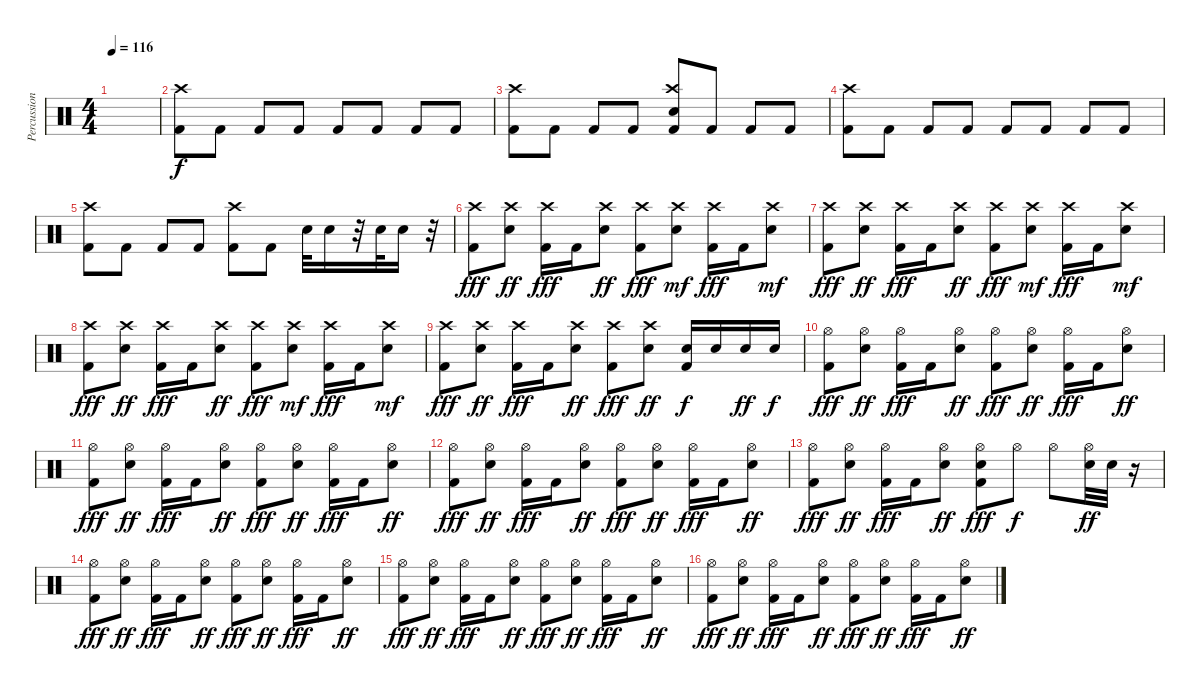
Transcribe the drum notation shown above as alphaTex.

\track ("Percussioni" "Percussion") {instrument percussion}
\staff {score}
\articulation defaults
\ts (4 4)
\tempo 116
\clef neutral
\ks c
|
("Kick (hit) 2" "Crash high (hit)").8 "Kick (hit) 2".8 "Kick (hit) 2".8 "Kick (hit) 2".8 "Kick (hit) 2".8 "Kick (hit) 2".8 "Kick (hit) 2".8 "Kick (hit) 2".8 |
("Kick (hit) 2" "Crash high (hit)").8 "Kick (hit) 2".8 "Kick (hit) 2".8 "Kick (hit) 2".8 ("Kick (hit) 2" "Electric Snare (hit)" "Crash high (hit)").8 "Kick (hit) 2".8 "Kick (hit) 2".8 "Kick (hit) 2".8 |
("Kick (hit) 2" "Crash high (hit)").8 "Kick (hit) 2".8 "Kick (hit) 2".8 "Kick (hit) 2".8 "Kick (hit) 2".8 "Kick (hit) 2".8 "Kick (hit) 2".8 "Kick (hit) 2".8 |
("Kick (hit) 2" "Crash high (hit)").8 "Kick (hit) 2".8 "Kick (hit) 2".8 "Kick (hit) 2".8 ("Kick (hit) 2" "Crash high (hit)").8 "Kick (hit) 2".8 "Snare (hit) 2".32{dy f} "Snare (hit) 2".16 r.32 "Snare (hit) 2".32 "Snare (hit) 2".16 r.32 |
("Crash high (hit)" "Kick (hit) 2").8{dy fff} ("Crash high (hit)" "Snare (hit) 2").8{dy ff} ("Crash high (hit)" "Kick (hit) 2").16{dy fff} "Kick (hit) 2".16 ("Crash high (hit)" "Snare (hit) 2").8{dy ff} ("Crash high (hit)" "Kick (hit) 2").8{dy fff} ("Crash high (hit)" "Snare (hit) 2").8{dy mf} ("Crash high (hit)" "Kick (hit) 2").16{dy fff} "Kick (hit) 2".16 ("Crash high (hit)" "Snare (hit) 2").8{dy mf} |
("Crash high (hit)" "Kick (hit) 2").8{dy fff} ("Crash high (hit)" "Snare (hit) 2").8{dy ff} ("Crash high (hit)" "Kick (hit) 2").16{dy fff} "Kick (hit) 2".16 ("Crash high (hit)" "Snare (hit) 2").8{dy ff} ("Crash high (hit)" "Kick (hit) 2").8{dy fff} ("Crash high (hit)" "Snare (hit) 2").8{dy mf} ("Crash high (hit)" "Kick (hit) 2").16{dy fff} "Kick (hit) 2".16 ("Crash high (hit)" "Snare (hit) 2").8{dy mf} |
("Crash high (hit)" "Kick (hit) 2").8{dy fff} ("Crash high (hit)" "Snare (hit) 2").8{dy ff} ("Crash high (hit)" "Kick (hit) 2").16{dy fff} "Kick (hit) 2".16 ("Crash high (hit)" "Snare (hit) 2").8{dy ff} ("Crash high (hit)" "Kick (hit) 2").8{dy fff} ("Crash high (hit)" "Snare (hit) 2").8{dy mf} ("Crash high (hit)" "Kick (hit) 2").16{dy fff} "Kick (hit) 2".16 ("Crash high (hit)" "Snare (hit) 2").8{dy mf} |
("Crash high (hit)" "Kick (hit) 2").8{dy fff} ("Crash high (hit)" "Snare (hit) 2").8{dy ff} ("Crash high (hit)" "Kick (hit) 2").16{dy fff} "Kick (hit) 2".16 ("Crash high (hit)" "Snare (hit) 2").8{dy ff} ("Crash high (hit)" "Kick (hit) 2").8{dy fff} ("Crash high (hit)" "Snare (hit) 2").8{dy ff} ("Snare (hit) 2" "Kick (hit) 2").16{dy f} "Snare (hit) 2".16 "Snare (hit) 2".16{dy ff} "Snare (hit) 2".16{dy f} |
("Hi-Hat (open)" "Kick (hit) 2").8{dy fff} ("Hi-Hat (open)" "Snare (hit) 2").8{dy ff} ("Hi-Hat (open)" "Kick (hit) 2").16{dy fff} "Kick (hit) 2".16 ("Hi-Hat (open)" "Snare (hit) 2").8{dy ff} ("Hi-Hat (open)" "Kick (hit) 2").8{dy fff} ("Hi-Hat (open)" "Snare (hit) 2").8{dy ff} ("Hi-Hat (open)" "Kick (hit) 2").16{dy fff} "Kick (hit) 2".16 ("Hi-Hat (open)" "Snare (hit) 2").8{dy ff} |
("Hi-Hat (open)" "Kick (hit) 2").8{dy fff} ("Hi-Hat (open)" "Snare (hit) 2").8{dy ff} ("Hi-Hat (open)" "Kick (hit) 2").16{dy fff} "Kick (hit) 2".16 ("Hi-Hat (open)" "Snare (hit) 2").8{dy ff} ("Hi-Hat (open)" "Kick (hit) 2").8{dy fff} ("Hi-Hat (open)" "Snare (hit) 2").8{dy ff} ("Hi-Hat (open)" "Kick (hit) 2").16{dy fff} "Kick (hit) 2".16 ("Hi-Hat (open)" "Snare (hit) 2").8{dy ff} |
("Hi-Hat (open)" "Kick (hit) 2").8{dy fff} ("Hi-Hat (open)" "Snare (hit) 2").8{dy ff} ("Hi-Hat (open)" "Kick (hit) 2").16{dy fff} "Kick (hit) 2".16 ("Hi-Hat (open)" "Snare (hit) 2").8{dy ff} ("Hi-Hat (open)" "Kick (hit) 2").8{dy fff} ("Hi-Hat (open)" "Snare (hit) 2").8{dy ff} ("Hi-Hat (open)" "Kick (hit) 2").16{dy fff} "Kick (hit) 2".16 ("Hi-Hat (open)" "Snare (hit) 2").8{dy ff} |
("Hi-Hat (open)" "Kick (hit) 2").8{dy fff} ("Hi-Hat (open)" "Snare (hit) 2").8{dy ff} ("Hi-Hat (open)" "Kick (hit) 2").16{dy fff} "Kick (hit) 2".16 ("Hi-Hat (open)" "Snare (hit) 2").8{dy ff} ("Hi-Hat (open)" "Snare (hit) 2" "Kick (hit) 2").8{dy fff} "Hi-Hat (open)".8{dy f} "Hi-Hat (open)".8 ("Hi-Hat (open)" "Snare (hit) 2").32{dy ff} "Snare (hit) 2".32 r.16 |
("Hi-Hat (open)" "Kick (hit) 2").8{dy fff} ("Hi-Hat (open)" "Snare (hit) 2").8{dy ff} ("Hi-Hat (open)" "Kick (hit) 2").16{dy fff} "Kick (hit) 2".16 ("Hi-Hat (open)" "Snare (hit) 2").8{dy ff} ("Hi-Hat (open)" "Kick (hit) 2").8{dy fff} ("Hi-Hat (open)" "Snare (hit) 2").8{dy ff} ("Hi-Hat (open)" "Kick (hit) 2").16{dy fff} "Kick (hit) 2".16 ("Hi-Hat (open)" "Snare (hit) 2").8{dy ff} |
("Hi-Hat (open)" "Kick (hit) 2").8{dy fff} ("Hi-Hat (open)" "Snare (hit) 2").8{dy ff} ("Hi-Hat (open)" "Kick (hit) 2").16{dy fff} "Kick (hit) 2".16 ("Hi-Hat (open)" "Snare (hit) 2").8{dy ff} ("Hi-Hat (open)" "Kick (hit) 2").8{dy fff} ("Hi-Hat (open)" "Snare (hit) 2").8{dy ff} ("Hi-Hat (open)" "Kick (hit) 2").16{dy fff} "Kick (hit) 2".16 ("Hi-Hat (open)" "Snare (hit) 2").8{dy ff} |
("Hi-Hat (open)" "Kick (hit) 2").8{dy fff} ("Hi-Hat (open)" "Snare (hit) 2").8{dy ff} ("Hi-Hat (open)" "Kick (hit) 2").16{dy fff} "Kick (hit) 2".16 ("Hi-Hat (open)" "Snare (hit) 2").8{dy ff} ("Hi-Hat (open)" "Kick (hit) 2").8{dy fff} ("Hi-Hat (open)" "Snare (hit) 2").8{dy ff} ("Hi-Hat (open)" "Kick (hit) 2").16{dy fff} "Kick (hit) 2".16 ("Hi-Hat (open)" "Snare (hit) 2").8{dy ff}
